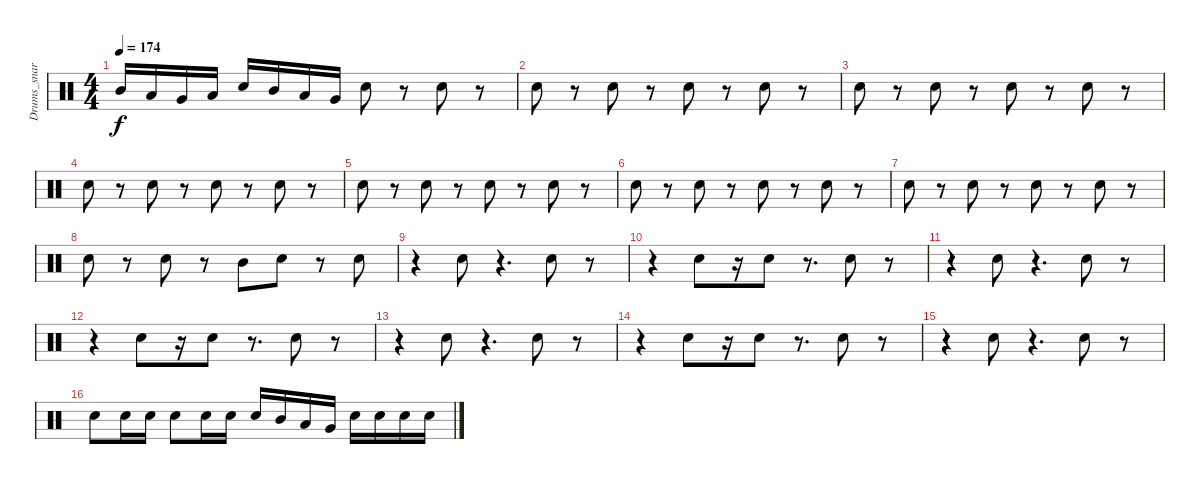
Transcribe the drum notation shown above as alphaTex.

\track ("Drums_snare&tom" "Drums_snar") {instrument percussion}
\staff {score}
\articulation defaults
\ts (4 4)
\tempo 174
\clef neutral
\ks c "Mid Tom (hit)".16{dy f} "Low Tom (hit)".16 "Very Low Tom (hit)".16 "Low Floor Tom (hit)".16 "Electric Snare (hit)".16 "Mid Tom (hit)".16 "Low Tom (hit)".16 "Very Low Tom (hit)".16 "Electric Snare (hit)".8
r.8 "Electric Snare (hit)".8 r.8 |
"Electric Snare (hit)".8 r.8 "Electric Snare (hit)".8 r.8 "Electric Snare (hit)".8 r.8 "Electric Snare (hit)".8 r.8 |
"Electric Snare (hit)".8 r.8 "Electric Snare (hit)".8 r.8 "Electric Snare (hit)".8 r.8 "Electric Snare (hit)".8 r.8 |
"Electric Snare (hit)".8 r.8 "Electric Snare (hit)".8 r.8 "Electric Snare (hit)".8 r.8 "Electric Snare (hit)".8 r.8 |
"Electric Snare (hit)".8 r.8 "Electric Snare (hit)".8 r.8 "Electric Snare (hit)".8 r.8 "Electric Snare (hit)".8 r.8 |
"Electric Snare (hit)".8 r.8 "Electric Snare (hit)".8 r.8 "Electric Snare (hit)".8 r.8 "Electric Snare (hit)".8 r.8 |
"Electric Snare (hit)".8 r.8 "Electric Snare (hit)".8 r.8 "Electric Snare (hit)".8 r.8 "Electric Snare (hit)".8 r.8 |
"Electric Snare (hit)".8 r.8 "Electric Snare (hit)".8 r.8 "Mid Tom (hit)".8 "Electric Snare (hit)".8 r.8 "Electric Snare (hit)".8 |
r.4 "Electric Snare (hit)".8 r.4{d} "Electric Snare (hit)".8 r.8 |
r.4 "Electric Snare (hit)".8 r.16 "Electric Snare (hit)".8 r.8{d} "Electric Snare (hit)".8 r.8 |
r.4 "Electric Snare (hit)".8 r.4{d} "Electric Snare (hit)".8 r.8 |
r.4 "Electric Snare (hit)".8 r.16 "Electric Snare (hit)".8 r.8{d} "Electric Snare (hit)".8 r.8 |
r.4 "Electric Snare (hit)".8 r.4{d} "Electric Snare (hit)".8 r.8 |
r.4 "Electric Snare (hit)".8 r.16 "Electric Snare (hit)".8 r.8{d} "Electric Snare (hit)".8 r.8 |
r.4 "Electric Snare (hit)".8 r.4{d} "Electric Snare (hit)".8 r.8 |
"Electric Snare (hit)".8 "Electric Snare (hit)".16 "Electric Snare (hit)".16 "Electric Snare (hit)".8 "Electric Snare (hit)".16 "Electric Snare (hit)".16 "Electric Snare (hit)".16 "Mid Tom (hit)".16 "Low Tom (hit)".16 "Very Low Tom (hit)".16 "Electric Snare (hit)".16 "Electric Snare (hit)".16 "Electric Snare (hit)".16 "Electric Snare (hit)".16
